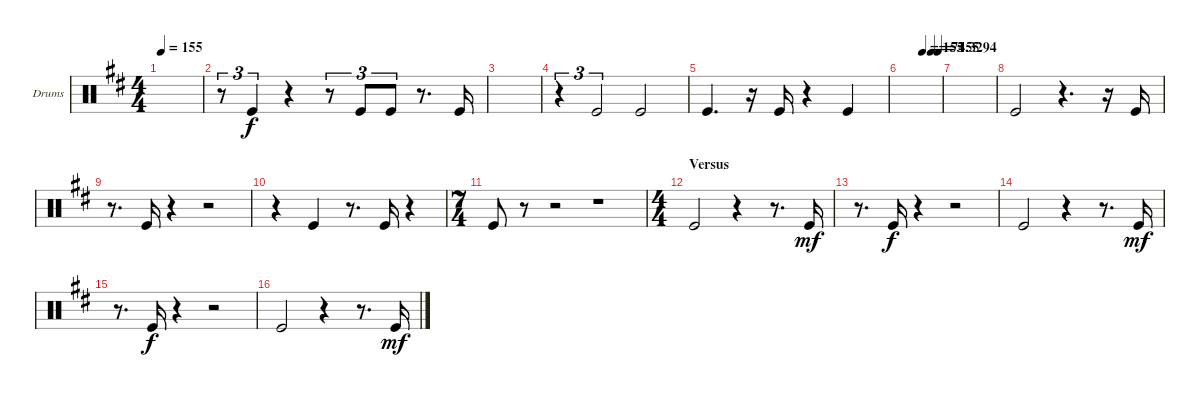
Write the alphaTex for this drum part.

\bracketExtendMode groupsimilarinstruments
\firstSystemTrackNameOrientation horizontal
\otherSystemsTrackNameOrientation horizontal
\track ("Kick" "Drums") {instrument percussion}
\staff {score}
\articulation defaults
\ts (4 4)
\tempo 155
\clef neutral
\ks d
|
r.8{tu (3 2)} "Kick (hit)".4{tu (3 2)} r.4 r.8{tu (3 2)} "Kick (hit)".8{tu (3 2)} "Kick (hit)".8{tu (3 2)} r.8{d} "Kick (hit)".16 |
|
r.4{tu (3 2)} "Kick (hit)".2{tu (3 2)} "Kick (hit)".2 |
"Kick (hit)".4{d} r.16 "Kick (hit)".16 r.4 "Kick (hit)".4 |
\tempo (155 0.53125)
\tempo (74.3294 0.75)
\tempo (155 0.925)
|
|
"Kick (hit)".2 r.4{d} r.16 "Kick (hit)".16 |
r.8{d} "Kick (hit)".16 r.4 r.2 |
r.4 "Kick (hit)".4 r.8{d} "Kick (hit)".16 r.4 |
\ts (7 4)
"Kick (hit)".8 r.8 r.2 r.1 |
\ts (4 4)
\section ("" "Versus")
"Kick (hit)".2{dy f} r.4 r.8{d} "Kick (hit)".16{dy mf} |
r.8{d} "Kick (hit)".16{dy f} r.4 r.2 |
"Kick (hit)".2 r.4 r.8{d} "Kick (hit)".16{dy mf} |
r.8{d} "Kick (hit)".16{dy f} r.4 r.2 |
"Kick (hit)".2 r.4 r.8{d} "Kick (hit)".16{dy mf}
